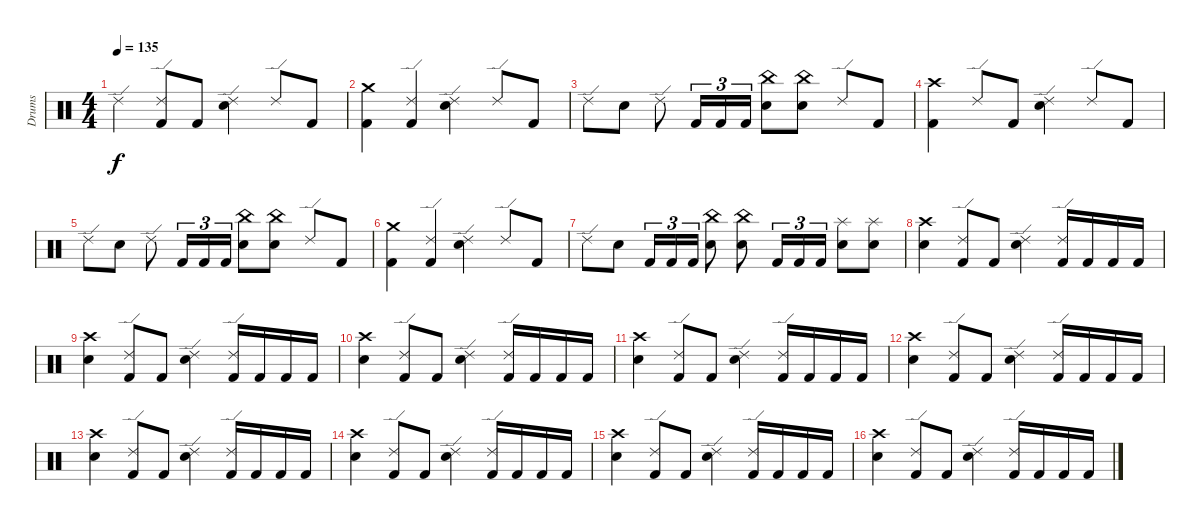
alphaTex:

\track ("Drums" "Drums") {instrument percussion}
\staff {score}
\articulation defaults
\ts (4 4)
\tempo 135
\clef neutral
\ks c "Ride (edge) 2".4{dy f}
("Kick (hit) 2" "Ride (edge) 2").8 "Kick (hit) 2".8 ("Snare (hit) 2" "Ride (edge) 2").4 "Ride (edge) 2".8 "Kick (hit) 2".8 |
("Kick (hit) 2" "Crash medium (hit)").4 ("Kick (hit) 2" "Ride (edge) 2").4 ("Snare (hit) 2" "Ride (edge) 2").4 "Ride (edge) 2".8 "Kick (hit) 2".8 |
"Ride (edge) 2".8 "Snare (hit) 2".8 "Ride (edge) 2".8 "Kick (hit) 2".16{tu (3 2)} "Kick (hit) 2".16{tu (3 2)} "Kick (hit) 2".16{tu (3 2)} ("Snare (hit) 2" "China (hit)").8 ("Snare (hit) 2" "China (hit)").8 "Ride (edge) 2".8 "Kick (hit) 2".8 |
("Kick (hit) 2" "Crash high (hit)").4 "Ride (edge) 2".8 "Kick (hit) 2".8 ("Snare (hit) 2" "Ride (edge) 2").4 "Ride (edge) 2".8 "Kick (hit) 2".8 |
"Ride (edge) 2".8 "Snare (hit) 2".8 "Ride (edge) 2".8 "Kick (hit) 2".16{tu (3 2)} "Kick (hit) 2".16{tu (3 2)} "Kick (hit) 2".16{tu (3 2)} ("Snare (hit) 2" "China (hit)").8 ("Snare (hit) 2" "China (hit)").8 "Ride (edge) 2".8 "Kick (hit) 2".8 |
("Kick (hit) 2" "Crash medium (hit)").4 ("Kick (hit) 2" "Ride (edge) 2").4 ("Snare (hit) 2" "Ride (edge) 2").4 "Ride (edge) 2".8 "Kick (hit) 2".8 |
"Ride (edge) 2".8 "Snare (hit) 2".8 "Kick (hit) 2".16{tu (3 2)} "Kick (hit) 2".16{tu (3 2)} "Kick (hit) 2".16{tu (3 2)} ("Snare (hit) 2" "China (hit)").8 ("Snare (hit) 2" "China (hit)").8 "Kick (hit) 2".16{tu (3 2)} "Kick (hit) 2".16{tu (3 2)} "Kick (hit) 2".16{tu (3 2)} ("Snare (hit) 2" "Splash (hit)").8 ("Snare (hit) 2" "Splash (hit)").8 |
("Snare (hit) 2" "Crash high (hit)").4 ("Kick (hit) 2" "Ride (edge) 2").8 "Kick (hit) 2".8 ("Snare (hit) 2" "Ride (edge) 2").4 ("Kick (hit) 2" "Ride (edge) 2").16 "Kick (hit) 2".16 "Kick (hit) 2".16 "Kick (hit) 2".16 |
("Snare (hit) 2" "Crash high (hit)").4 ("Kick (hit) 2" "Ride (edge) 2").8 "Kick (hit) 2".8 ("Snare (hit) 2" "Ride (edge) 2").4 ("Kick (hit) 2" "Ride (edge) 2").16 "Kick (hit) 2".16 "Kick (hit) 2".16 "Kick (hit) 2".16 |
("Snare (hit) 2" "Crash high (hit)").4 ("Kick (hit) 2" "Ride (edge) 2").8 "Kick (hit) 2".8 ("Snare (hit) 2" "Ride (edge) 2").4 ("Kick (hit) 2" "Ride (edge) 2").16 "Kick (hit) 2".16 "Kick (hit) 2".16 "Kick (hit) 2".16 |
("Snare (hit) 2" "Crash high (hit)").4 ("Kick (hit) 2" "Ride (edge) 2").8 "Kick (hit) 2".8 ("Snare (hit) 2" "Ride (edge) 2").4 ("Kick (hit) 2" "Ride (edge) 2").16 "Kick (hit) 2".16 "Kick (hit) 2".16 "Kick (hit) 2".16 |
("Snare (hit) 2" "Crash high (hit)").4 ("Kick (hit) 2" "Ride (edge) 2").8 "Kick (hit) 2".8 ("Snare (hit) 2" "Ride (edge) 2").4 ("Kick (hit) 2" "Ride (edge) 2").16 "Kick (hit) 2".16 "Kick (hit) 2".16 "Kick (hit) 2".16 |
("Snare (hit) 2" "Crash high (hit)").4 ("Kick (hit) 2" "Ride (edge) 2").8 "Kick (hit) 2".8 ("Snare (hit) 2" "Ride (edge) 2").4 ("Kick (hit) 2" "Ride (edge) 2").16 "Kick (hit) 2".16 "Kick (hit) 2".16 "Kick (hit) 2".16 |
("Snare (hit) 2" "Crash high (hit)").4 ("Kick (hit) 2" "Ride (edge) 2").8 "Kick (hit) 2".8 ("Snare (hit) 2" "Ride (edge) 2").4 ("Kick (hit) 2" "Ride (edge) 2").16 "Kick (hit) 2".16 "Kick (hit) 2".16 "Kick (hit) 2".16 |
("Snare (hit) 2" "Crash high (hit)").4 ("Kick (hit) 2" "Ride (edge) 2").8 "Kick (hit) 2".8 ("Snare (hit) 2" "Ride (edge) 2").4 ("Kick (hit) 2" "Ride (edge) 2").16 "Kick (hit) 2".16 "Kick (hit) 2".16 "Kick (hit) 2".16 |
("Snare (hit) 2" "Crash high (hit)").4 ("Kick (hit) 2" "Ride (edge) 2").8 "Kick (hit) 2".8 ("Snare (hit) 2" "Ride (edge) 2").4 ("Kick (hit) 2" "Ride (edge) 2").16 "Kick (hit) 2".16 "Kick (hit) 2".16 "Kick (hit) 2".16
